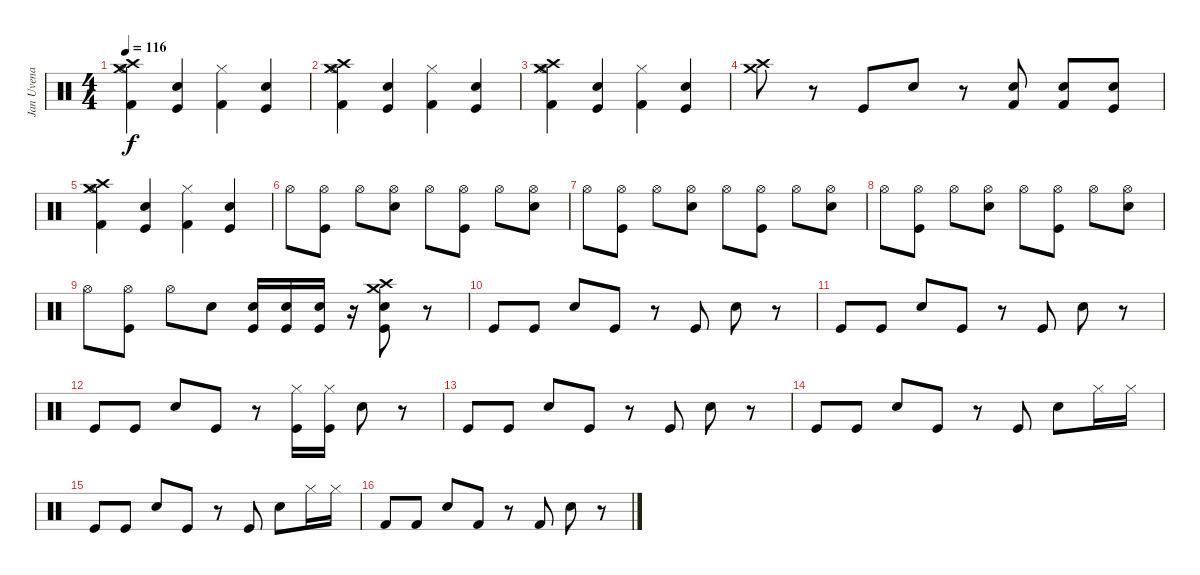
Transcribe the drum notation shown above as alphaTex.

\track ("Jan Uvena" "Jan Uvena") {instrument percussion}
\staff {score}
\articulation defaults
\ts (4 4)
\tempo 116
\clef neutral
\ks c
("Crash medium (hit)" "Crash high (hit)" "Hi-Hat (open)" "Kick (hit) 2").4{dy f} ("Snare (hit) 2" "Kick (hit)").4 ("Hi-Hat (closed)" "Kick (hit) 2").4 ("Snare (hit) 2" "Kick (hit)").4 |
("Crash medium (hit)" "Crash high (hit)" "Hi-Hat (open)" "Kick (hit) 2").4 ("Snare (hit) 2" "Kick (hit)").4 ("Hi-Hat (closed)" "Kick (hit) 2").4 ("Snare (hit) 2" "Kick (hit)").4 |
("Crash medium (hit)" "Crash high (hit)" "Hi-Hat (open)" "Kick (hit) 2").4 ("Snare (hit) 2" "Kick (hit)").4 ("Hi-Hat (closed)" "Kick (hit) 2").4 ("Snare (hit) 2" "Kick (hit)").4 |
("Crash medium (hit)" "Crash high (hit)").8 r.8 "Kick (hit)".8 "Snare (hit) 2".8 r.8 ("Snare (hit) 2" "Kick (hit) 2").8 ("Snare (hit) 2" "Kick (hit) 2").8 ("Snare (hit) 2" "Kick (hit)").8 |
("Crash medium (hit)" "Crash high (hit)" "Hi-Hat (open)" "Kick (hit) 2").4 ("Snare (hit) 2" "Kick (hit)").4 ("Hi-Hat (closed)" "Kick (hit) 2").4 ("Snare (hit) 2" "Kick (hit)").4 |
"Hi-Hat (open)".8 ("Hi-Hat (open)" "Kick (hit)").8 "Hi-Hat (open)".8 ("Hi-Hat (open)" "Snare (hit) 2").8 "Hi-Hat (open)".8 ("Hi-Hat (open)" "Kick (hit)").8 "Hi-Hat (open)".8 ("Hi-Hat (open)" "Snare (hit) 2").8 |
"Hi-Hat (open)".8 ("Hi-Hat (open)" "Kick (hit)").8 "Hi-Hat (open)".8 ("Hi-Hat (open)" "Snare (hit) 2").8 "Hi-Hat (open)".8 ("Hi-Hat (open)" "Kick (hit)").8 "Hi-Hat (open)".8 ("Hi-Hat (open)" "Snare (hit) 2").8 |
"Hi-Hat (open)".8 ("Hi-Hat (open)" "Kick (hit)").8 "Hi-Hat (open)".8 ("Hi-Hat (open)" "Snare (hit) 2").8 "Hi-Hat (open)".8 ("Hi-Hat (open)" "Kick (hit)").8 "Hi-Hat (open)".8 ("Hi-Hat (open)" "Snare (hit) 2").8 |
"Hi-Hat (open)".8 ("Hi-Hat (open)" "Kick (hit)").8 "Hi-Hat (open)".8 "Snare (hit) 2".8 ("Snare (hit) 2" "Kick (hit)").16 ("Snare (hit) 2" "Kick (hit)").16 ("Snare (hit) 2" "Kick (hit)").16 r.16 ("Crash medium (hit)" "Crash high (hit)" "Snare (hit) 2" "Kick (hit)").8 r.8 |
"Kick (hit)".8 "Kick (hit)".8 "Snare (hit) 2".8 "Kick (hit)".8 r.8 "Kick (hit)".8 "Snare (hit) 2".8 r.8 |
"Kick (hit)".8 "Kick (hit)".8 "Snare (hit) 2".8 "Kick (hit)".8 r.8 "Kick (hit)".8 "Snare (hit) 2".8 r.8 |
"Kick (hit)".8 "Kick (hit)".8 "Snare (hit) 2".8 "Kick (hit)".8 r.8 ("Hi-Hat (closed)" "Kick (hit)").16 ("Hi-Hat (closed)" "Kick (hit)").16 "Snare (hit) 2".8 r.8 |
"Kick (hit)".8 "Kick (hit)".8 "Snare (hit) 2".8 "Kick (hit)".8 r.8 "Kick (hit)".8 "Snare (hit) 2".8 r.8 |
"Kick (hit)".8 "Kick (hit)".8 "Snare (hit) 2".8 "Kick (hit)".8 r.8 "Kick (hit)".8 "Snare (hit) 2".8 "Hi-Hat (closed)".16 "Hi-Hat (closed)".16 |
"Kick (hit)".8 "Kick (hit)".8 "Snare (hit) 2".8 "Kick (hit)".8 r.8 "Kick (hit)".8 "Snare (hit) 2".8 "Hi-Hat (closed)".16 "Hi-Hat (closed)".16 |
"Kick (hit) 2".8 "Kick (hit) 2".8 "Snare (hit) 2".8 "Kick (hit) 2".8 r.8 "Kick (hit) 2".8 "Snare (hit) 2".8 r.8
